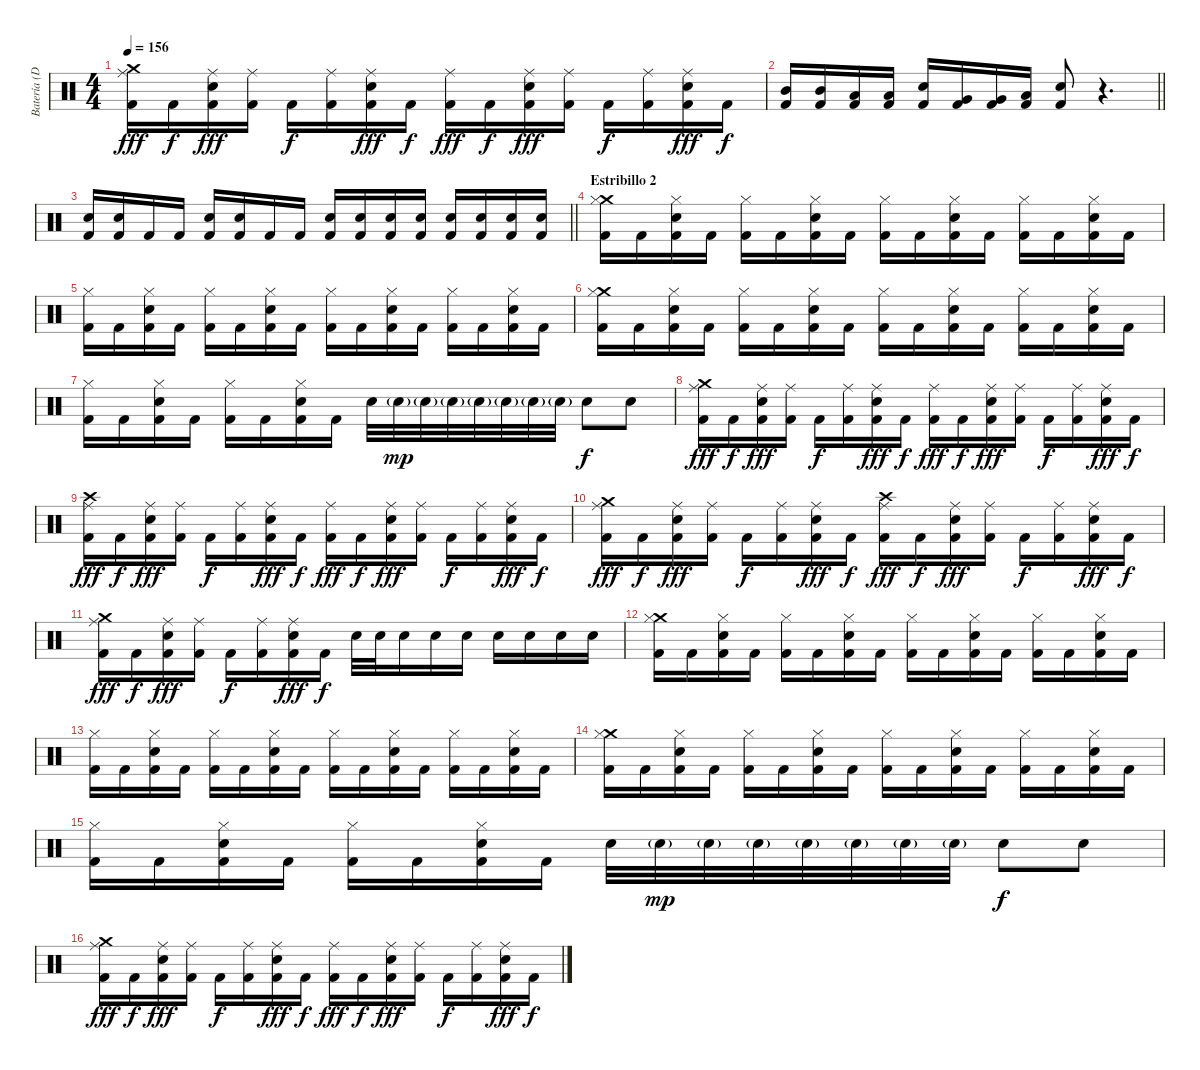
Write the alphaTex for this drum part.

\track ("Batería (Dani)" "Batería (D") {instrument percussion}
\staff {score}
\articulation defaults
\ts (4 4)
\tempo 156
\clef neutral
\ks c
("Crash medium (hit)" "Ride (middle)" "Kick (hit) 2").16{dy fff} "Kick (hit) 2".16{dy f} ("Ride (middle)" "Electric Snare (hit)" "Kick (hit) 2").16{dy fff} ("Ride (middle)" "Kick (hit) 2").16 "Kick (hit) 2".16{dy f} ("Ride (middle)" "Kick (hit) 2").16 ("Ride (middle)" "Electric Snare (hit)" "Kick (hit) 2").16{dy fff} "Kick (hit) 2".16{dy f} ("Ride (middle)" "Kick (hit) 2").16{dy fff} "Kick (hit) 2".16{dy f} ("Ride (middle)" "Electric Snare (hit)" "Kick (hit) 2").16{dy fff} ("Ride (middle)" "Kick (hit) 2").16 "Kick (hit) 2".16{dy f} ("Ride (middle)" "Kick (hit) 2").16 ("Ride (middle)" "Electric Snare (hit)" "Kick (hit) 2").16{dy fff} "Kick (hit) 2".16{dy f} |
\barLineRight lightlight
("Mid Tom (hit)" "Kick (hit) 2").16 ("Mid Tom (hit)" "Kick (hit) 2").16 ("Low Tom (hit)" "Kick (hit) 2").16 ("Low Tom (hit)" "Kick (hit) 2").16 ("Electric Snare (hit)" "Kick (hit) 2").16 ("Very Low Tom (hit)" "Kick (hit) 2").16 ("Very Low Tom (hit)" "Kick (hit) 2").16 ("Low Floor Tom (hit)" "Kick (hit) 2").16 ("Electric Snare (hit)" "Kick (hit) 2").8 r.4{d} |
\barLineRight lightlight
("Electric Snare (hit)" "Kick (hit) 2").16 ("Electric Snare (hit)" "Kick (hit) 2").16 "Kick (hit) 2".16 "Kick (hit) 2".16 ("Electric Snare (hit)" "Kick (hit) 2").16 ("Electric Snare (hit)" "Kick (hit) 2").16 "Kick (hit) 2".16 "Kick (hit) 2".16 ("Electric Snare (hit)" "Kick (hit) 2").16 ("Electric Snare (hit)" "Kick (hit) 2").16 ("Electric Snare (hit)" "Kick (hit) 2").16 ("Electric Snare (hit)" "Kick (hit) 2").16 ("Electric Snare (hit)" "Kick (hit) 2").16 ("Electric Snare (hit)" "Kick (hit) 2").16 ("Electric Snare (hit)" "Kick (hit) 2").16 ("Electric Snare (hit)" "Kick (hit) 2").16 |
\section ("" "Estribillo 2")
("Crash medium (hit)" "Hi-Hat (closed)" "Kick (hit) 2").16 "Kick (hit) 2".16 ("Hi-Hat (closed)" "Electric Snare (hit)" "Kick (hit) 2").16 "Kick (hit) 2".16 ("Hi-Hat (closed)" "Kick (hit) 2").16 "Kick (hit) 2".16 ("Hi-Hat (closed)" "Electric Snare (hit)" "Kick (hit) 2").16 "Kick (hit) 2".16 ("Hi-Hat (closed)" "Kick (hit) 2").16 "Kick (hit) 2".16 ("Hi-Hat (closed)" "Electric Snare (hit)" "Kick (hit) 2").16 "Kick (hit) 2".16 ("Hi-Hat (closed)" "Kick (hit) 2").16 "Kick (hit) 2".16 ("Hi-Hat (closed)" "Electric Snare (hit)" "Kick (hit) 2").16 "Kick (hit) 2".16 |
("Hi-Hat (closed)" "Kick (hit) 2").16 "Kick (hit) 2".16 ("Hi-Hat (closed)" "Electric Snare (hit)" "Kick (hit) 2").16 "Kick (hit) 2".16 ("Hi-Hat (closed)" "Kick (hit) 2").16 "Kick (hit) 2".16 ("Hi-Hat (closed)" "Electric Snare (hit)" "Kick (hit) 2").16 "Kick (hit) 2".16 ("Hi-Hat (closed)" "Kick (hit) 2").16 "Kick (hit) 2".16 ("Hi-Hat (closed)" "Electric Snare (hit)" "Kick (hit) 2").16 "Kick (hit) 2".16 ("Hi-Hat (closed)" "Kick (hit) 2").16 "Kick (hit) 2".16 ("Hi-Hat (closed)" "Electric Snare (hit)" "Kick (hit) 2").16 "Kick (hit) 2".16 |
("Crash medium (hit)" "Hi-Hat (closed)" "Kick (hit) 2").16 "Kick (hit) 2".16 ("Hi-Hat (closed)" "Electric Snare (hit)" "Kick (hit) 2").16 "Kick (hit) 2".16 ("Hi-Hat (closed)" "Kick (hit) 2").16 "Kick (hit) 2".16 ("Hi-Hat (closed)" "Electric Snare (hit)" "Kick (hit) 2").16 "Kick (hit) 2".16 ("Hi-Hat (closed)" "Kick (hit) 2").16 "Kick (hit) 2".16 ("Hi-Hat (closed)" "Electric Snare (hit)" "Kick (hit) 2").16 "Kick (hit) 2".16 ("Hi-Hat (closed)" "Kick (hit) 2").16 "Kick (hit) 2".16 ("Hi-Hat (closed)" "Electric Snare (hit)" "Kick (hit) 2").16 "Kick (hit) 2".16 |
("Hi-Hat (closed)" "Kick (hit) 2").16 "Kick (hit) 2".16 ("Hi-Hat (closed)" "Electric Snare (hit)" "Kick (hit) 2").16 "Kick (hit) 2".16 ("Hi-Hat (closed)" "Kick (hit) 2").16 "Kick (hit) 2".16 ("Hi-Hat (closed)" "Electric Snare (hit)" "Kick (hit) 2").16 "Kick (hit) 2".16 "Electric Snare (hit)".32 "Electric Snare (hit)"{g}.32{dy mp} "Electric Snare (hit)"{g}.32 "Electric Snare (hit)"{g}.32 "Electric Snare (hit)"{g}.32 "Electric Snare (hit)"{g}.32 "Electric Snare (hit)"{g}.32 "Electric Snare (hit)"{g}.32 "Electric Snare (hit)".8{dy f} "Electric Snare (hit)".8 |
("Crash medium (hit)" "Ride (middle)" "Kick (hit) 2").16{dy fff} "Kick (hit) 2".16{dy f} ("Ride (middle)" "Electric Snare (hit)" "Kick (hit) 2").16{dy fff} ("Ride (middle)" "Kick (hit) 2").16 "Kick (hit) 2".16{dy f} ("Ride (middle)" "Kick (hit) 2").16 ("Ride (middle)" "Electric Snare (hit)" "Kick (hit) 2").16{dy fff} "Kick (hit) 2".16{dy f} ("Ride (middle)" "Kick (hit) 2").16{dy fff} "Kick (hit) 2".16{dy f} ("Ride (middle)" "Electric Snare (hit)" "Kick (hit) 2").16{dy fff} ("Ride (middle)" "Kick (hit) 2").16 "Kick (hit) 2".16{dy f} ("Ride (middle)" "Kick (hit) 2").16 ("Ride (middle)" "Electric Snare (hit)" "Kick (hit) 2").16{dy fff} "Kick (hit) 2".16{dy f} |
("Crash high (hit)" "Ride (middle)" "Kick (hit) 2").16{dy fff} "Kick (hit) 2".16{dy f} ("Ride (middle)" "Electric Snare (hit)" "Kick (hit) 2").16{dy fff} ("Ride (middle)" "Kick (hit) 2").16 "Kick (hit) 2".16{dy f} ("Ride (middle)" "Kick (hit) 2").16 ("Ride (middle)" "Electric Snare (hit)" "Kick (hit) 2").16{dy fff} "Kick (hit) 2".16{dy f} ("Ride (middle)" "Kick (hit) 2").16{dy fff} "Kick (hit) 2".16{dy f} ("Ride (middle)" "Electric Snare (hit)" "Kick (hit) 2").16{dy fff} ("Ride (middle)" "Kick (hit) 2").16 "Kick (hit) 2".16{dy f} ("Ride (middle)" "Kick (hit) 2").16 ("Ride (middle)" "Electric Snare (hit)" "Kick (hit) 2").16{dy fff} "Kick (hit) 2".16{dy f} |
("Crash medium (hit)" "Ride (middle)" "Kick (hit) 2").16{dy fff} "Kick (hit) 2".16{dy f} ("Ride (middle)" "Electric Snare (hit)" "Kick (hit) 2").16{dy fff} ("Ride (middle)" "Kick (hit) 2").16 "Kick (hit) 2".16{dy f} ("Ride (middle)" "Kick (hit) 2").16 ("Ride (middle)" "Electric Snare (hit)" "Kick (hit) 2").16{dy fff} "Kick (hit) 2".16{dy f} ("Crash high (hit)" "Ride (middle)" "Kick (hit) 2").16{dy fff} "Kick (hit) 2".16{dy f} ("Ride (middle)" "Electric Snare (hit)" "Kick (hit) 2").16{dy fff} ("Ride (middle)" "Kick (hit) 2").16 "Kick (hit) 2".16{dy f} ("Ride (middle)" "Kick (hit) 2").16 ("Ride (middle)" "Electric Snare (hit)" "Kick (hit) 2").16{dy fff} "Kick (hit) 2".16{dy f} |
("Crash medium (hit)" "Ride (middle)" "Kick (hit) 2").16{dy fff} "Kick (hit) 2".16{dy f} ("Ride (middle)" "Electric Snare (hit)" "Kick (hit) 2").16{dy fff} ("Ride (middle)" "Kick (hit) 2").16 "Kick (hit) 2".16{dy f} ("Ride (middle)" "Kick (hit) 2").16 ("Ride (middle)" "Electric Snare (hit)" "Kick (hit) 2").16{dy fff} "Kick (hit) 2".16{dy f} "Electric Snare (hit)".32 "Electric Snare (hit)".32 "Electric Snare (hit)".16 "Electric Snare (hit)".16 "Electric Snare (hit)".16 "Electric Snare (hit)".16 "Electric Snare (hit)".16 "Electric Snare (hit)".16 "Electric Snare (hit)".16 |
("Crash medium (hit)" "Hi-Hat (closed)" "Kick (hit) 2").16 "Kick (hit) 2".16 ("Hi-Hat (closed)" "Electric Snare (hit)" "Kick (hit) 2").16 "Kick (hit) 2".16 ("Hi-Hat (closed)" "Kick (hit) 2").16 "Kick (hit) 2".16 ("Hi-Hat (closed)" "Electric Snare (hit)" "Kick (hit) 2").16 "Kick (hit) 2".16 ("Hi-Hat (closed)" "Kick (hit) 2").16 "Kick (hit) 2".16 ("Hi-Hat (closed)" "Electric Snare (hit)" "Kick (hit) 2").16 "Kick (hit) 2".16 ("Hi-Hat (closed)" "Kick (hit) 2").16 "Kick (hit) 2".16 ("Hi-Hat (closed)" "Electric Snare (hit)" "Kick (hit) 2").16 "Kick (hit) 2".16 |
("Hi-Hat (closed)" "Kick (hit) 2").16 "Kick (hit) 2".16 ("Hi-Hat (closed)" "Electric Snare (hit)" "Kick (hit) 2").16 "Kick (hit) 2".16 ("Hi-Hat (closed)" "Kick (hit) 2").16 "Kick (hit) 2".16 ("Hi-Hat (closed)" "Electric Snare (hit)" "Kick (hit) 2").16 "Kick (hit) 2".16 ("Hi-Hat (closed)" "Kick (hit) 2").16 "Kick (hit) 2".16 ("Hi-Hat (closed)" "Electric Snare (hit)" "Kick (hit) 2").16 "Kick (hit) 2".16 ("Hi-Hat (closed)" "Kick (hit) 2").16 "Kick (hit) 2".16 ("Hi-Hat (closed)" "Electric Snare (hit)" "Kick (hit) 2").16 "Kick (hit) 2".16 |
("Crash medium (hit)" "Hi-Hat (closed)" "Kick (hit) 2").16 "Kick (hit) 2".16 ("Hi-Hat (closed)" "Electric Snare (hit)" "Kick (hit) 2").16 "Kick (hit) 2".16 ("Hi-Hat (closed)" "Kick (hit) 2").16 "Kick (hit) 2".16 ("Hi-Hat (closed)" "Electric Snare (hit)" "Kick (hit) 2").16 "Kick (hit) 2".16 ("Hi-Hat (closed)" "Kick (hit) 2").16 "Kick (hit) 2".16 ("Hi-Hat (closed)" "Electric Snare (hit)" "Kick (hit) 2").16 "Kick (hit) 2".16 ("Hi-Hat (closed)" "Kick (hit) 2").16 "Kick (hit) 2".16 ("Hi-Hat (closed)" "Electric Snare (hit)" "Kick (hit) 2").16 "Kick (hit) 2".16 |
("Hi-Hat (closed)" "Kick (hit) 2").16 "Kick (hit) 2".16 ("Hi-Hat (closed)" "Electric Snare (hit)" "Kick (hit) 2").16 "Kick (hit) 2".16 ("Hi-Hat (closed)" "Kick (hit) 2").16 "Kick (hit) 2".16 ("Hi-Hat (closed)" "Electric Snare (hit)" "Kick (hit) 2").16 "Kick (hit) 2".16 "Electric Snare (hit)".32 "Electric Snare (hit)"{g}.32{dy mp} "Electric Snare (hit)"{g}.32 "Electric Snare (hit)"{g}.32 "Electric Snare (hit)"{g}.32 "Electric Snare (hit)"{g}.32 "Electric Snare (hit)"{g}.32 "Electric Snare (hit)"{g}.32 "Electric Snare (hit)".8{dy f} "Electric Snare (hit)".8 |
("Crash medium (hit)" "Ride (middle)" "Kick (hit) 2").16{dy fff} "Kick (hit) 2".16{dy f} ("Ride (middle)" "Electric Snare (hit)" "Kick (hit) 2").16{dy fff} ("Ride (middle)" "Kick (hit) 2").16 "Kick (hit) 2".16{dy f} ("Ride (middle)" "Kick (hit) 2").16 ("Ride (middle)" "Electric Snare (hit)" "Kick (hit) 2").16{dy fff} "Kick (hit) 2".16{dy f} ("Ride (middle)" "Kick (hit) 2").16{dy fff} "Kick (hit) 2".16{dy f} ("Ride (middle)" "Electric Snare (hit)" "Kick (hit) 2").16{dy fff} ("Ride (middle)" "Kick (hit) 2").16 "Kick (hit) 2".16{dy f} ("Ride (middle)" "Kick (hit) 2").16 ("Ride (middle)" "Electric Snare (hit)" "Kick (hit) 2").16{dy fff} "Kick (hit) 2".16{dy f}
